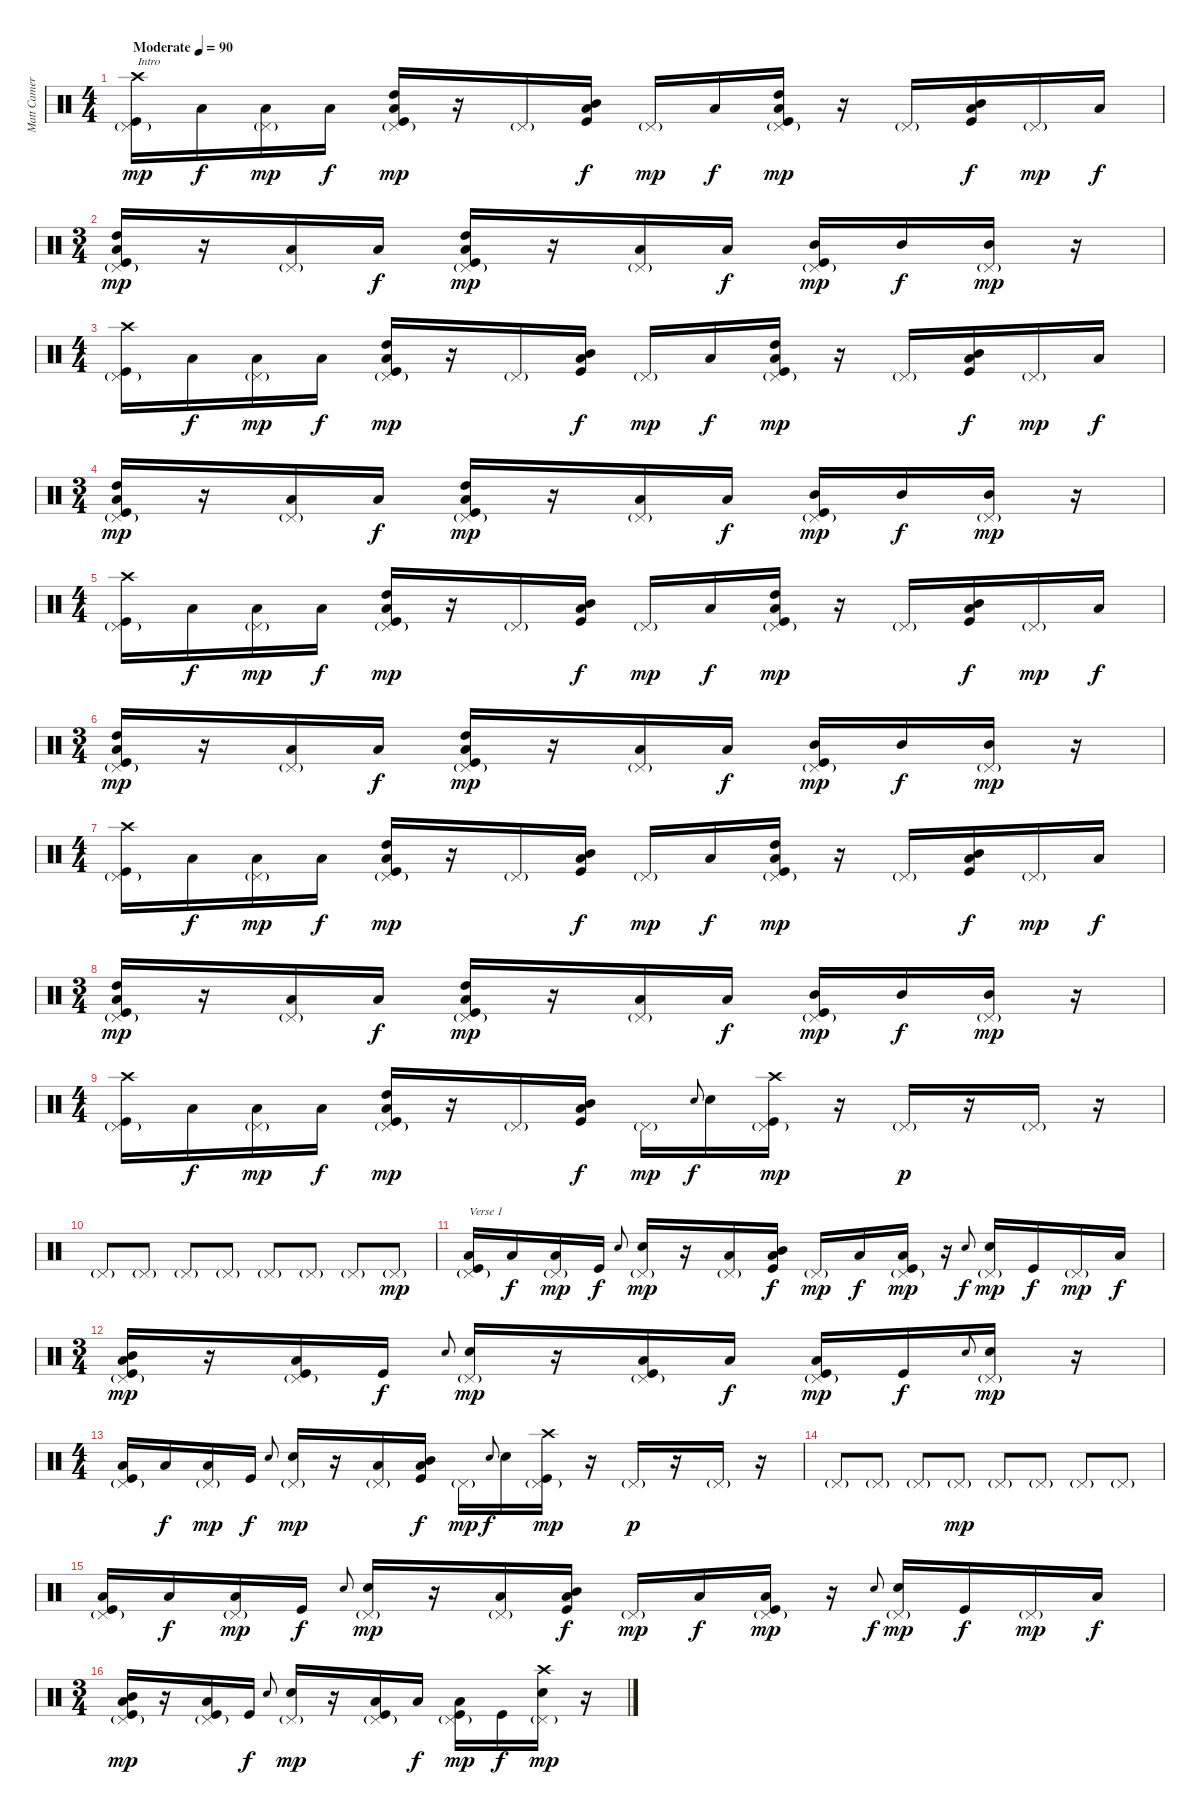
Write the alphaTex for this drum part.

\track ("Matt Cameron" "Matt Camer") {instrument percussion}
\staff {score}
\articulation defaults
\ts (4 4)
\tempo (90 "Moderate")
\clef neutral
\ks c
("Crash high (hit)" "Pedal Hi-Hat (hit)"{g} "Kick (hit)").16{txt "Intro" dy mp} "Low Floor Tom (hit)".16{dy f} ("Low Floor Tom (hit)" "Pedal Hi-Hat (hit)"{g}).16{dy mp} "Low Floor Tom (hit)".16{dy f} ("High Tom (hit)" "Low Floor Tom (hit)" "Pedal Hi-Hat (hit)"{g} "Kick (hit)").16{dy mp} r.16 "Pedal Hi-Hat (hit)"{g}.16 ("Mid Tom (hit)" "Low Floor Tom (hit)" "Kick (hit)").16{dy f} "Pedal Hi-Hat (hit)"{g}.16{dy mp} "Low Floor Tom (hit)".16{dy f} ("High Tom (hit)" "Low Floor Tom (hit)" "Pedal Hi-Hat (hit)"{g} "Kick (hit)").16{dy mp} r.16 "Pedal Hi-Hat (hit)"{g}.16 ("Mid Tom (hit)" "Low Floor Tom (hit)" "Kick (hit)").16{dy f} "Pedal Hi-Hat (hit)"{g}.16{dy mp} "Low Floor Tom (hit)".16{dy f} |
\ts (3 4)
("High Tom (hit)" "Low Floor Tom (hit)" "Pedal Hi-Hat (hit)"{g} "Kick (hit)").16{dy mp} r.16 ("Low Floor Tom (hit)" "Pedal Hi-Hat (hit)"{g}).16 "Low Floor Tom (hit)".16{dy f} ("High Tom (hit)" "Low Floor Tom (hit)" "Pedal Hi-Hat (hit)"{g} "Kick (hit)").16{dy mp} r.16 ("Low Floor Tom (hit)" "Pedal Hi-Hat (hit)"{g}).16 "Low Floor Tom (hit)".16{dy f} ("Mid Tom (hit)" "Pedal Hi-Hat (hit)"{g} "Kick (hit)").16{dy mp} "Mid Tom (hit)".16{dy f} ("Mid Tom (hit)" "Pedal Hi-Hat (hit)"{g}).16{dy mp} r.16 |
\ts (4 4)
("Crash high (hit)" "Pedal Hi-Hat (hit)"{g} "Kick (hit)").16 "Low Floor Tom (hit)".16{dy f} ("Low Floor Tom (hit)" "Pedal Hi-Hat (hit)"{g}).16{dy mp} "Low Floor Tom (hit)".16{dy f} ("High Tom (hit)" "Low Floor Tom (hit)" "Pedal Hi-Hat (hit)"{g} "Kick (hit)").16{dy mp} r.16 "Pedal Hi-Hat (hit)"{g}.16 ("Mid Tom (hit)" "Low Floor Tom (hit)" "Kick (hit)").16{dy f} "Pedal Hi-Hat (hit)"{g}.16{dy mp} "Low Floor Tom (hit)".16{dy f} ("High Tom (hit)" "Low Floor Tom (hit)" "Pedal Hi-Hat (hit)"{g} "Kick (hit)").16{dy mp} r.16 "Pedal Hi-Hat (hit)"{g}.16 ("Mid Tom (hit)" "Low Floor Tom (hit)" "Kick (hit)").16{dy f} "Pedal Hi-Hat (hit)"{g}.16{dy mp} "Low Floor Tom (hit)".16{dy f} |
\ts (3 4)
("High Tom (hit)" "Low Floor Tom (hit)" "Pedal Hi-Hat (hit)"{g} "Kick (hit)").16{dy mp} r.16 ("Low Floor Tom (hit)" "Pedal Hi-Hat (hit)"{g}).16 "Low Floor Tom (hit)".16{dy f} ("High Tom (hit)" "Low Floor Tom (hit)" "Pedal Hi-Hat (hit)"{g} "Kick (hit)").16{dy mp} r.16 ("Low Floor Tom (hit)" "Pedal Hi-Hat (hit)"{g}).16 "Low Floor Tom (hit)".16{dy f} ("Mid Tom (hit)" "Pedal Hi-Hat (hit)"{g} "Kick (hit)").16{dy mp} "Mid Tom (hit)".16{dy f} ("Mid Tom (hit)" "Pedal Hi-Hat (hit)"{g}).16{dy mp} r.16 |
\ts (4 4)
("Crash high (hit)" "Pedal Hi-Hat (hit)"{g} "Kick (hit)").16 "Low Floor Tom (hit)".16{dy f} ("Low Floor Tom (hit)" "Pedal Hi-Hat (hit)"{g}).16{dy mp} "Low Floor Tom (hit)".16{dy f} ("High Tom (hit)" "Low Floor Tom (hit)" "Pedal Hi-Hat (hit)"{g} "Kick (hit)").16{dy mp} r.16 "Pedal Hi-Hat (hit)"{g}.16 ("Mid Tom (hit)" "Low Floor Tom (hit)" "Kick (hit)").16{dy f} "Pedal Hi-Hat (hit)"{g}.16{dy mp} "Low Floor Tom (hit)".16{dy f} ("High Tom (hit)" "Low Floor Tom (hit)" "Pedal Hi-Hat (hit)"{g} "Kick (hit)").16{dy mp} r.16 "Pedal Hi-Hat (hit)"{g}.16 ("Mid Tom (hit)" "Low Floor Tom (hit)" "Kick (hit)").16{dy f} "Pedal Hi-Hat (hit)"{g}.16{dy mp} "Low Floor Tom (hit)".16{dy f} |
\ts (3 4)
("High Tom (hit)" "Low Floor Tom (hit)" "Pedal Hi-Hat (hit)"{g} "Kick (hit)").16{dy mp} r.16 ("Low Floor Tom (hit)" "Pedal Hi-Hat (hit)"{g}).16 "Low Floor Tom (hit)".16{dy f} ("High Tom (hit)" "Low Floor Tom (hit)" "Pedal Hi-Hat (hit)"{g} "Kick (hit)").16{dy mp} r.16 ("Low Floor Tom (hit)" "Pedal Hi-Hat (hit)"{g}).16 "Low Floor Tom (hit)".16{dy f} ("Mid Tom (hit)" "Pedal Hi-Hat (hit)"{g} "Kick (hit)").16{dy mp} "Mid Tom (hit)".16{dy f} ("Mid Tom (hit)" "Pedal Hi-Hat (hit)"{g}).16{dy mp} r.16 |
\ts (4 4)
("Crash high (hit)" "Pedal Hi-Hat (hit)"{g} "Kick (hit)").16 "Low Floor Tom (hit)".16{dy f} ("Low Floor Tom (hit)" "Pedal Hi-Hat (hit)"{g}).16{dy mp} "Low Floor Tom (hit)".16{dy f} ("High Tom (hit)" "Low Floor Tom (hit)" "Pedal Hi-Hat (hit)"{g} "Kick (hit)").16{dy mp} r.16 "Pedal Hi-Hat (hit)"{g}.16 ("Mid Tom (hit)" "Low Floor Tom (hit)" "Kick (hit)").16{dy f} "Pedal Hi-Hat (hit)"{g}.16{dy mp} "Low Floor Tom (hit)".16{dy f} ("High Tom (hit)" "Low Floor Tom (hit)" "Pedal Hi-Hat (hit)"{g} "Kick (hit)").16{dy mp} r.16 "Pedal Hi-Hat (hit)"{g}.16 ("Mid Tom (hit)" "Low Floor Tom (hit)" "Kick (hit)").16{dy f} "Pedal Hi-Hat (hit)"{g}.16{dy mp} "Low Floor Tom (hit)".16{dy f} |
\ts (3 4)
("High Tom (hit)" "Low Floor Tom (hit)" "Pedal Hi-Hat (hit)"{g} "Kick (hit)").16{dy mp} r.16 ("Low Floor Tom (hit)" "Pedal Hi-Hat (hit)"{g}).16 "Low Floor Tom (hit)".16{dy f} ("High Tom (hit)" "Low Floor Tom (hit)" "Pedal Hi-Hat (hit)"{g} "Kick (hit)").16{dy mp} r.16 ("Low Floor Tom (hit)" "Pedal Hi-Hat (hit)"{g}).16 "Low Floor Tom (hit)".16{dy f} ("Mid Tom (hit)" "Pedal Hi-Hat (hit)"{g} "Kick (hit)").16{dy mp} "Mid Tom (hit)".16{dy f} ("Mid Tom (hit)" "Pedal Hi-Hat (hit)"{g}).16{dy mp} r.16 |
\ts (4 4)
("Crash high (hit)" "Pedal Hi-Hat (hit)"{g} "Kick (hit)").16 "Low Floor Tom (hit)".16{dy f} ("Low Floor Tom (hit)" "Pedal Hi-Hat (hit)"{g}).16{dy mp} "Low Floor Tom (hit)".16{dy f} ("High Tom (hit)" "Low Floor Tom (hit)" "Pedal Hi-Hat (hit)"{g} "Kick (hit)").16{dy mp} r.16 "Pedal Hi-Hat (hit)"{g}.16 ("Mid Tom (hit)" "Low Floor Tom (hit)" "Kick (hit)").16{dy f} "Pedal Hi-Hat (hit)"{g}.16{dy mp} "Electric Snare (hit)".8{gr onbeat dy f} "Electric Snare (hit)".16 ("Crash high (hit)" "Pedal Hi-Hat (hit)"{g} "Kick (hit)").16{dy mp} r.16 "Pedal Hi-Hat (hit)"{g}.16{dy p} r.16 "Pedal Hi-Hat (hit)"{g}.16 r.16 |
"Pedal Hi-Hat (hit)"{g}.8 "Pedal Hi-Hat (hit)"{g}.8 "Pedal Hi-Hat (hit)"{g}.8 "Pedal Hi-Hat (hit)"{g}.8 "Pedal Hi-Hat (hit)"{g}.8 "Pedal Hi-Hat (hit)"{g}.8 "Pedal Hi-Hat (hit)"{g}.8 "Pedal Hi-Hat (hit)"{g}.8{dy mp} |
("Low Floor Tom (hit)" "Pedal Hi-Hat (hit)"{g} "Kick (hit)").16{txt "Verse 1"} "Low Floor Tom (hit)".16{dy f} ("Low Floor Tom (hit)" "Pedal Hi-Hat (hit)"{g}).16{dy mp} "Kick (hit)".16{dy f} "Electric Snare (hit)".8{gr onbeat} ("Electric Snare (hit)" "Pedal Hi-Hat (hit)"{g}).16{dy mp} r.16 ("Low Floor Tom (hit)" "Pedal Hi-Hat (hit)"{g}).16 ("Mid Tom (hit)" "Low Floor Tom (hit)" "Kick (hit)").16{dy f} "Pedal Hi-Hat (hit)"{g}.16{dy mp} "Low Floor Tom (hit)".16{dy f} ("Low Floor Tom (hit)" "Pedal Hi-Hat (hit)"{g} "Kick (hit)").16{dy mp} r.16 "Electric Snare (hit)".8{gr onbeat dy f} ("Electric Snare (hit)" "Pedal Hi-Hat (hit)"{g}).16{dy mp} "Kick (hit)".16{dy f} "Pedal Hi-Hat (hit)"{g}.16{dy mp} "Low Floor Tom (hit)".16{dy f} |
\ts (3 4)
("Mid Tom (hit)" "Low Floor Tom (hit)" "Pedal Hi-Hat (hit)"{g} "Kick (hit)").16{dy mp} r.16 ("Low Floor Tom (hit)" "Pedal Hi-Hat (hit)"{g} "Kick (hit)").16 "Kick (hit)".16{dy f} "Electric Snare (hit)".8{gr onbeat} ("Electric Snare (hit)" "Pedal Hi-Hat (hit)"{g}).16{dy mp} r.16 ("Low Floor Tom (hit)" "Pedal Hi-Hat (hit)"{g} "Kick (hit)").16 "Low Floor Tom (hit)".16{dy f} ("Low Floor Tom (hit)" "Pedal Hi-Hat (hit)"{g} "Kick (hit)").16{dy mp} "Kick (hit)".16{dy f} "Electric Snare (hit)".8{gr onbeat} ("Electric Snare (hit)" "Pedal Hi-Hat (hit)"{g}).16{dy mp} r.16 |
\ts (4 4)
("Low Floor Tom (hit)" "Pedal Hi-Hat (hit)"{g} "Kick (hit)").16 "Low Floor Tom (hit)".16{dy f} ("Low Floor Tom (hit)" "Pedal Hi-Hat (hit)"{g}).16{dy mp} "Kick (hit)".16{dy f} "Electric Snare (hit)".8{gr onbeat} ("Electric Snare (hit)" "Pedal Hi-Hat (hit)"{g}).16{dy mp} r.16 ("Low Floor Tom (hit)" "Pedal Hi-Hat (hit)"{g}).16 ("Mid Tom (hit)" "Low Floor Tom (hit)" "Kick (hit)").16{dy f} "Pedal Hi-Hat (hit)"{g}.16{dy mp} "Electric Snare (hit)".8{gr onbeat dy f} "Electric Snare (hit)".16 ("Crash high (hit)" "Pedal Hi-Hat (hit)"{g} "Kick (hit)").16{dy mp} r.16 "Pedal Hi-Hat (hit)"{g}.16{dy p} r.16 "Pedal Hi-Hat (hit)"{g}.16 r.16 |
"Pedal Hi-Hat (hit)"{g}.8 "Pedal Hi-Hat (hit)"{g}.8 "Pedal Hi-Hat (hit)"{g}.8 "Pedal Hi-Hat (hit)"{g}.8{dy mp} "Pedal Hi-Hat (hit)"{g}.8 "Pedal Hi-Hat (hit)"{g}.8 "Pedal Hi-Hat (hit)"{g}.8 "Pedal Hi-Hat (hit)"{g}.8 |
("Low Floor Tom (hit)" "Pedal Hi-Hat (hit)"{g} "Kick (hit)").16 "Low Floor Tom (hit)".16{dy f} ("Low Floor Tom (hit)" "Pedal Hi-Hat (hit)"{g}).16{dy mp} "Kick (hit)".16{dy f} "Electric Snare (hit)".8{gr onbeat} ("Electric Snare (hit)" "Pedal Hi-Hat (hit)"{g}).16{dy mp} r.16 ("Low Floor Tom (hit)" "Pedal Hi-Hat (hit)"{g}).16 ("Mid Tom (hit)" "Low Floor Tom (hit)" "Kick (hit)").16{dy f} "Pedal Hi-Hat (hit)"{g}.16{dy mp} "Low Floor Tom (hit)".16{dy f} ("Low Floor Tom (hit)" "Pedal Hi-Hat (hit)"{g} "Kick (hit)").16{dy mp} r.16 "Electric Snare (hit)".8{gr onbeat dy f} ("Electric Snare (hit)" "Pedal Hi-Hat (hit)"{g}).16{dy mp} "Kick (hit)".16{dy f} "Pedal Hi-Hat (hit)"{g}.16{dy mp} "Low Floor Tom (hit)".16{dy f} |
\ts (3 4)
("Mid Tom (hit)" "Low Floor Tom (hit)" "Pedal Hi-Hat (hit)"{g} "Kick (hit)").16{dy mp} r.16 ("Low Floor Tom (hit)" "Pedal Hi-Hat (hit)"{g} "Kick (hit)").16 "Kick (hit)".16{dy f} "Electric Snare (hit)".8{gr onbeat} ("Electric Snare (hit)" "Pedal Hi-Hat (hit)"{g}).16{dy mp} r.16 ("Low Floor Tom (hit)" "Pedal Hi-Hat (hit)"{g} "Kick (hit)").16 "Low Floor Tom (hit)".16{dy f} ("Low Floor Tom (hit)" "Pedal Hi-Hat (hit)"{g} "Kick (hit)").16{dy mp} "Kick (hit)".16{dy f} ("Crash high (hit)" "Electric Snare (hit)" "Pedal Hi-Hat (hit)"{g}).16{dy mp} r.16
